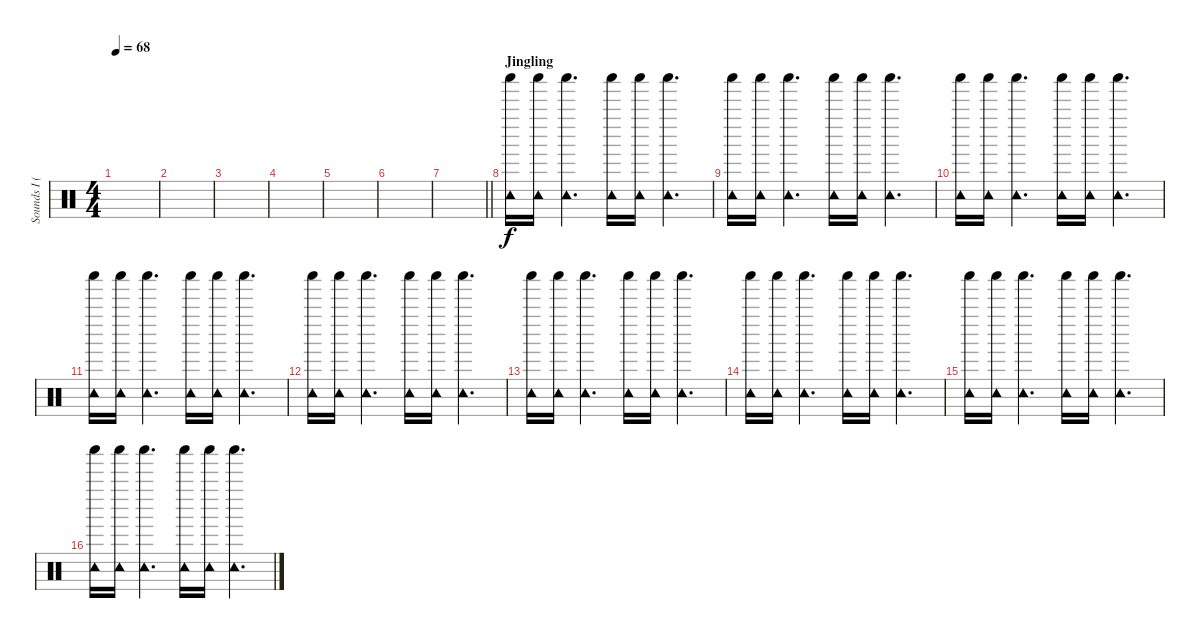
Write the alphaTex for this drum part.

\track ("Sounds I (Generic)" "Sounds I (") {instrument percussion}
\staff {score}
\articulation defaults
\ts (4 4)
\tempo 68
\clef neutral
\ks c
|
|
|
|
|
|
\barLineRight lightlight
|
\section ("" "Jingling")
("Tambourine (hit)" "Shaker (hit)").16 ("Tambourine (hit)" "Shaker (hit)").16 ("Tambourine (hit)" "Shaker (hit)").4{d} ("Tambourine (hit)" "Shaker (hit)").16 ("Tambourine (hit)" "Shaker (hit)").16 ("Tambourine (hit)" "Shaker (hit)").4{d} |
("Tambourine (hit)" "Shaker (hit)").16 ("Tambourine (hit)" "Shaker (hit)").16 ("Tambourine (hit)" "Shaker (hit)").4{d} ("Tambourine (hit)" "Shaker (hit)").16 ("Tambourine (hit)" "Shaker (hit)").16 ("Tambourine (hit)" "Shaker (hit)").4{d} |
("Tambourine (hit)" "Shaker (hit)").16 ("Tambourine (hit)" "Shaker (hit)").16 ("Tambourine (hit)" "Shaker (hit)").4{d} ("Tambourine (hit)" "Shaker (hit)").16 ("Tambourine (hit)" "Shaker (hit)").16 ("Tambourine (hit)" "Shaker (hit)").4{d} |
("Tambourine (hit)" "Shaker (hit)").16 ("Tambourine (hit)" "Shaker (hit)").16 ("Tambourine (hit)" "Shaker (hit)").4{d} ("Tambourine (hit)" "Shaker (hit)").16 ("Tambourine (hit)" "Shaker (hit)").16 ("Tambourine (hit)" "Shaker (hit)").4{d} |
("Tambourine (hit)" "Shaker (hit)").16 ("Tambourine (hit)" "Shaker (hit)").16 ("Tambourine (hit)" "Shaker (hit)").4{d} ("Tambourine (hit)" "Shaker (hit)").16 ("Tambourine (hit)" "Shaker (hit)").16 ("Tambourine (hit)" "Shaker (hit)").4{d} |
("Tambourine (hit)" "Shaker (hit)").16 ("Tambourine (hit)" "Shaker (hit)").16 ("Tambourine (hit)" "Shaker (hit)").4{d} ("Tambourine (hit)" "Shaker (hit)").16 ("Tambourine (hit)" "Shaker (hit)").16 ("Tambourine (hit)" "Shaker (hit)").4{d} |
("Tambourine (hit)" "Shaker (hit)").16 ("Tambourine (hit)" "Shaker (hit)").16 ("Tambourine (hit)" "Shaker (hit)").4{d} ("Tambourine (hit)" "Shaker (hit)").16 ("Tambourine (hit)" "Shaker (hit)").16 ("Tambourine (hit)" "Shaker (hit)").4{d} |
("Tambourine (hit)" "Shaker (hit)").16 ("Tambourine (hit)" "Shaker (hit)").16 ("Tambourine (hit)" "Shaker (hit)").4{d} ("Tambourine (hit)" "Shaker (hit)").16 ("Tambourine (hit)" "Shaker (hit)").16 ("Tambourine (hit)" "Shaker (hit)").4{d} |
("Tambourine (hit)" "Shaker (hit)").16 ("Tambourine (hit)" "Shaker (hit)").16 ("Tambourine (hit)" "Shaker (hit)").4{d} ("Tambourine (hit)" "Shaker (hit)").16 ("Tambourine (hit)" "Shaker (hit)").16 ("Tambourine (hit)" "Shaker (hit)").4{d}
